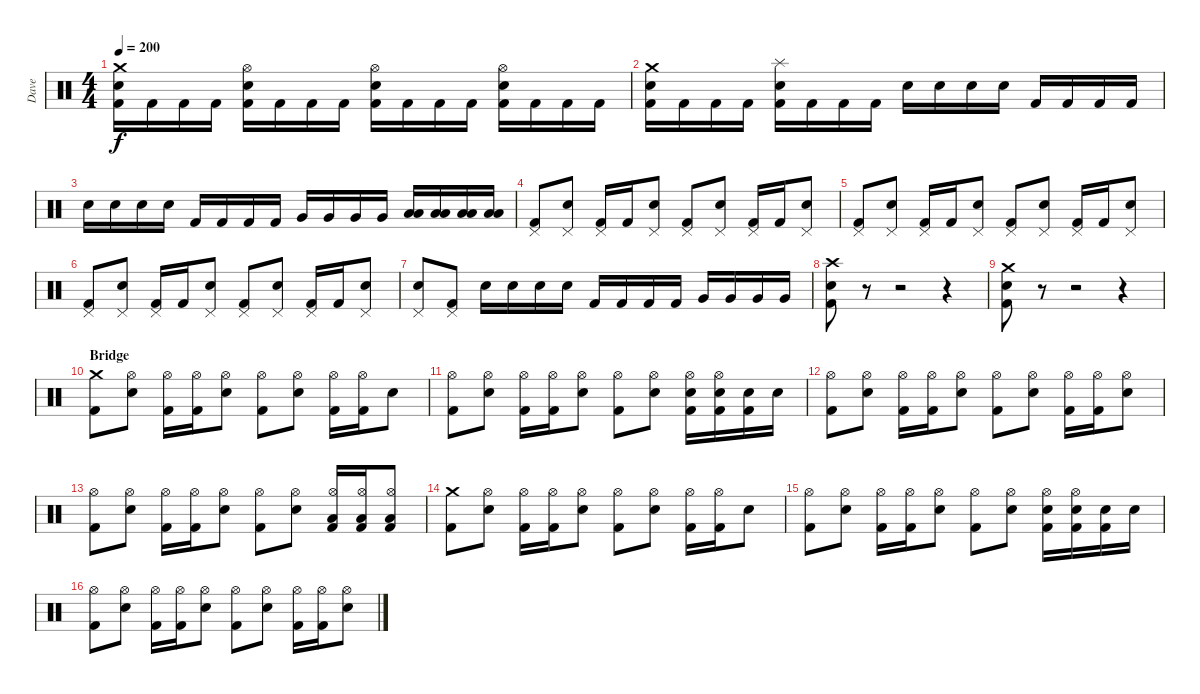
\track ("Dave" "Dave") {instrument percussion}
\staff {score}
\articulation defaults
\ts (4 4)
\tempo 200
\clef neutral
\ks c
("Crash medium (hit)" "Snare (hit) 2" "Kick (hit) 2").16{dy f} "Kick (hit) 2".16 "Kick (hit) 2".16 "Kick (hit) 2".16 ("Hi-Hat (open)" "Snare (hit) 2" "Kick (hit) 2").16 "Kick (hit) 2".16 "Kick (hit) 2".16 "Kick (hit) 2".16 ("Hi-Hat (open)" "Snare (hit) 2" "Kick (hit) 2").16 "Kick (hit) 2".16 "Kick (hit) 2".16 "Kick (hit) 2".16 ("Hi-Hat (open)" "Snare (hit) 2" "Kick (hit) 2").16 "Kick (hit) 2".16 "Kick (hit) 2".16 "Kick (hit) 2".16 |
("Crash medium (hit)" "Snare (hit) 2" "Kick (hit) 2").16 "Kick (hit) 2".16 "Kick (hit) 2".16 "Kick (hit) 2".16 ("Splash (hit)" "Snare (hit) 2" "Kick (hit) 2").16 "Kick (hit) 2".16 "Kick (hit) 2".16 "Kick (hit) 2".16 "Snare (hit) 2".16 "Snare (hit) 2".16 "Snare (hit) 2".16 "Snare (hit) 2".16 "Kick (hit) 2".16 "Kick (hit) 2".16 "Kick (hit) 2".16 "Kick (hit) 2".16 |
"Snare (hit) 2".16 "Snare (hit) 2".16 "Snare (hit) 2".16 "Snare (hit) 2".16 "Kick (hit) 2".16 "Kick (hit) 2".16 "Kick (hit) 2".16 "Kick (hit) 2".16 "Very Low Tom (hit)".16 "Very Low Tom (hit)".16 "Very Low Tom (hit)".16 "Very Low Tom (hit)".16 ("Low Floor Tom (hit)" "Low Floor Tom (hit)").16 ("Low Floor Tom (hit)" "Low Floor Tom (hit)").16 ("Low Floor Tom (hit)" "Low Floor Tom (hit)").16 ("Low Floor Tom (hit)" "Low Floor Tom (hit)").16 |
("Pedal Hi-Hat (hit)" "Kick (hit) 2").8 ("Pedal Hi-Hat (hit)" "Snare (hit) 2").8 ("Pedal Hi-Hat (hit)" "Kick (hit) 2").16 "Kick (hit) 2".16 ("Pedal Hi-Hat (hit)" "Snare (hit) 2").8 ("Pedal Hi-Hat (hit)" "Kick (hit) 2").8 ("Pedal Hi-Hat (hit)" "Snare (hit) 2").8 ("Pedal Hi-Hat (hit)" "Kick (hit) 2").16 "Kick (hit) 2".16 ("Pedal Hi-Hat (hit)" "Snare (hit) 2").8 |
("Pedal Hi-Hat (hit)" "Kick (hit) 2").8 ("Pedal Hi-Hat (hit)" "Snare (hit) 2").8 ("Pedal Hi-Hat (hit)" "Kick (hit) 2").16 "Kick (hit) 2".16 ("Pedal Hi-Hat (hit)" "Snare (hit) 2").8 ("Pedal Hi-Hat (hit)" "Kick (hit) 2").8 ("Pedal Hi-Hat (hit)" "Snare (hit) 2").8 ("Pedal Hi-Hat (hit)" "Kick (hit) 2").16 "Kick (hit) 2".16 ("Pedal Hi-Hat (hit)" "Snare (hit) 2").8 |
("Pedal Hi-Hat (hit)" "Kick (hit) 2").8 ("Pedal Hi-Hat (hit)" "Snare (hit) 2").8 ("Pedal Hi-Hat (hit)" "Kick (hit) 2").16 "Kick (hit) 2".16 ("Pedal Hi-Hat (hit)" "Snare (hit) 2").8 ("Pedal Hi-Hat (hit)" "Kick (hit) 2").8 ("Pedal Hi-Hat (hit)" "Snare (hit) 2").8 ("Pedal Hi-Hat (hit)" "Kick (hit) 2").16 "Kick (hit) 2".16 ("Pedal Hi-Hat (hit)" "Snare (hit) 2").8 |
("Pedal Hi-Hat (hit)" "Snare (hit) 2").8 ("Pedal Hi-Hat (hit)" "Kick (hit) 2").8 "Snare (hit) 2".16 "Snare (hit) 2".16 "Snare (hit) 2".16 "Snare (hit) 2".16 "Kick (hit) 2".16 "Kick (hit) 2".16 "Kick (hit) 2".16 "Kick (hit) 2".16 "Very Low Tom (hit)".16 "Very Low Tom (hit)".16 "Very Low Tom (hit)".16 "Very Low Tom (hit)".16 |
("Crash high (hit)" "Snare (hit) 2" "Kick (hit) 2").8 r.8 r.2 r.4 |
("Crash medium (hit)" "Snare (hit) 2" "Kick (hit) 2").8 r.8 r.2 r.4 |
\section ("" "Bridge")
("Crash medium (hit)" "Kick (hit) 2").8 ("Hi-Hat (open)" "Snare (hit) 2").8 ("Hi-Hat (open)" "Kick (hit) 2").16 ("Hi-Hat (open)" "Kick (hit) 2").16 ("Hi-Hat (open)" "Snare (hit) 2").8 ("Hi-Hat (open)" "Kick (hit) 2").8 ("Hi-Hat (open)" "Snare (hit) 2").8 ("Hi-Hat (open)" "Kick (hit) 2").16 ("Hi-Hat (open)" "Kick (hit) 2").16 "Snare (hit) 2".8 |
("Hi-Hat (open)" "Kick (hit) 2").8 ("Hi-Hat (open)" "Snare (hit) 2").8 ("Hi-Hat (open)" "Kick (hit) 2").16 ("Hi-Hat (open)" "Kick (hit) 2").16 ("Hi-Hat (open)" "Snare (hit) 2").8 ("Hi-Hat (open)" "Kick (hit) 2").8 ("Hi-Hat (open)" "Snare (hit) 2").8 ("Hi-Hat (open)" "Snare (hit) 2" "Kick (hit) 2").16 ("Hi-Hat (open)" "Snare (hit) 2" "Kick (hit) 2").16 ("Snare (hit) 2" "Kick (hit) 2").16 "Snare (hit) 2".16 |
("Hi-Hat (open)" "Kick (hit) 2").8 ("Hi-Hat (open)" "Snare (hit) 2").8 ("Hi-Hat (open)" "Kick (hit) 2").16 ("Hi-Hat (open)" "Kick (hit) 2").16 ("Hi-Hat (open)" "Snare (hit) 2").8 ("Hi-Hat (open)" "Kick (hit) 2").8 ("Hi-Hat (open)" "Snare (hit) 2").8 ("Hi-Hat (open)" "Kick (hit) 2").16 ("Hi-Hat (open)" "Kick (hit) 2").16 ("Hi-Hat (open)" "Snare (hit) 2").8 |
("Hi-Hat (open)" "Kick (hit) 2").8 ("Hi-Hat (open)" "Snare (hit) 2").8 ("Hi-Hat (open)" "Kick (hit) 2").16 ("Hi-Hat (open)" "Kick (hit) 2").16 ("Hi-Hat (open)" "Snare (hit) 2").8 ("Hi-Hat (open)" "Kick (hit) 2").8 ("Hi-Hat (open)" "Snare (hit) 2").8 ("Hi-Hat (open)" "Low Floor Tom (hit)" "Kick (hit) 2").16 ("Hi-Hat (open)" "Low Floor Tom (hit)" "Kick (hit) 2").16 ("Hi-Hat (open)" "Low Floor Tom (hit)" "Kick (hit) 2").8 |
("Crash medium (hit)" "Kick (hit) 2").8 ("Hi-Hat (open)" "Snare (hit) 2").8 ("Hi-Hat (open)" "Kick (hit) 2").16 ("Hi-Hat (open)" "Kick (hit) 2").16 ("Hi-Hat (open)" "Snare (hit) 2").8 ("Hi-Hat (open)" "Kick (hit) 2").8 ("Hi-Hat (open)" "Snare (hit) 2").8 ("Hi-Hat (open)" "Kick (hit) 2").16 ("Hi-Hat (open)" "Kick (hit) 2").16 "Snare (hit) 2".8 |
("Hi-Hat (open)" "Kick (hit) 2").8 ("Hi-Hat (open)" "Snare (hit) 2").8 ("Hi-Hat (open)" "Kick (hit) 2").16 ("Hi-Hat (open)" "Kick (hit) 2").16 ("Hi-Hat (open)" "Snare (hit) 2").8 ("Hi-Hat (open)" "Kick (hit) 2").8 ("Hi-Hat (open)" "Snare (hit) 2").8 ("Hi-Hat (open)" "Snare (hit) 2" "Kick (hit) 2").16 ("Hi-Hat (open)" "Snare (hit) 2" "Kick (hit) 2").16 ("Snare (hit) 2" "Kick (hit) 2").16 "Snare (hit) 2".16 |
("Hi-Hat (open)" "Kick (hit) 2").8 ("Hi-Hat (open)" "Snare (hit) 2").8 ("Hi-Hat (open)" "Kick (hit) 2").16 ("Hi-Hat (open)" "Kick (hit) 2").16 ("Hi-Hat (open)" "Snare (hit) 2").8 ("Hi-Hat (open)" "Kick (hit) 2").8 ("Hi-Hat (open)" "Snare (hit) 2").8 ("Hi-Hat (open)" "Kick (hit) 2").16 ("Hi-Hat (open)" "Kick (hit) 2").16 ("Hi-Hat (open)" "Snare (hit) 2").8
